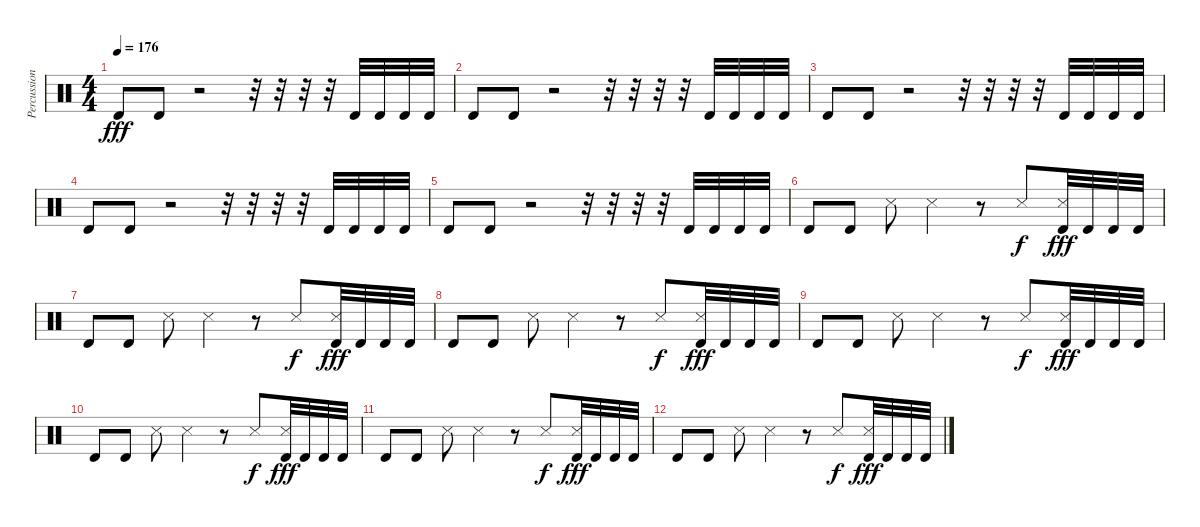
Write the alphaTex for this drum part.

\track ("Percussion" "Percussion") {instrument percussion}
\staff {score}
\articulation defaults
\ts (4 4)
\tempo 176
\clef neutral
\ks c "Timbale high (hit)".8{dy fff} "Timbale high (hit)".8
r.2 r.32 r.32 r.32 r.32 "Timbale high (hit)".32 "Timbale high (hit)".32 "Timbale high (hit)".32 "Timbale high (hit)".32 |
"Timbale high (hit)".8 "Timbale high (hit)".8 r.2 r.32 r.32 r.32 r.32 "Timbale high (hit)".32 "Timbale high (hit)".32 "Timbale high (hit)".32 "Timbale high (hit)".32 |
"Timbale high (hit)".8 "Timbale high (hit)".8 r.2 r.32 r.32 r.32 r.32 "Timbale high (hit)".32 "Timbale high (hit)".32 "Timbale high (hit)".32 "Timbale high (hit)".32 |
"Timbale high (hit)".8 "Timbale high (hit)".8 r.2 r.32 r.32 r.32 r.32 "Timbale high (hit)".32 "Timbale high (hit)".32 "Timbale high (hit)".32 "Timbale high (hit)".32 |
"Timbale high (hit)".8 "Timbale high (hit)".8 r.2 r.32 r.32 r.32 r.32 "Timbale high (hit)".32 "Timbale high (hit)".32 "Timbale high (hit)".32 "Timbale high (hit)".32 |
"Timbale high (hit)".8 "Timbale high (hit)".8 "Snare (side stick) 3".8 "Snare (side stick) 3".4 r.8 "Snare (side stick) 3".8{dy f} ("Timbale high (hit)" "Snare (side stick) 3").32{dy fff} "Timbale high (hit)".32 "Timbale high (hit)".32 "Timbale high (hit)".32 |
"Timbale high (hit)".8 "Timbale high (hit)".8 "Snare (side stick) 3".8 "Snare (side stick) 3".4 r.8 "Snare (side stick) 3".8{dy f} ("Timbale high (hit)" "Snare (side stick) 3").32{dy fff} "Timbale high (hit)".32 "Timbale high (hit)".32 "Timbale high (hit)".32 |
"Timbale high (hit)".8 "Timbale high (hit)".8 "Snare (side stick) 3".8 "Snare (side stick) 3".4 r.8 "Snare (side stick) 3".8{dy f} ("Timbale high (hit)" "Snare (side stick) 3").32{dy fff} "Timbale high (hit)".32 "Timbale high (hit)".32 "Timbale high (hit)".32 |
"Timbale high (hit)".8 "Timbale high (hit)".8 "Snare (side stick) 3".8 "Snare (side stick) 3".4 r.8 "Snare (side stick) 3".8{dy f} ("Timbale high (hit)" "Snare (side stick) 3").32{dy fff} "Timbale high (hit)".32 "Timbale high (hit)".32 "Timbale high (hit)".32 |
"Timbale high (hit)".8 "Timbale high (hit)".8 "Snare (side stick) 3".8 "Snare (side stick) 3".4 r.8 "Snare (side stick) 3".8{dy f} ("Timbale high (hit)" "Snare (side stick) 3").32{dy fff} "Timbale high (hit)".32 "Timbale high (hit)".32 "Timbale high (hit)".32 |
"Timbale high (hit)".8 "Timbale high (hit)".8 "Snare (side stick) 3".8 "Snare (side stick) 3".4 r.8 "Snare (side stick) 3".8{dy f} ("Timbale high (hit)" "Snare (side stick) 3").32{dy fff} "Timbale high (hit)".32 "Timbale high (hit)".32 "Timbale high (hit)".32 |
"Timbale high (hit)".8 "Timbale high (hit)".8 "Snare (side stick) 3".8 "Snare (side stick) 3".4 r.8 "Snare (side stick) 3".8{dy f} ("Timbale high (hit)" "Snare (side stick) 3").32{dy fff} "Timbale high (hit)".32 "Timbale high (hit)".32 "Timbale high (hit)".32
